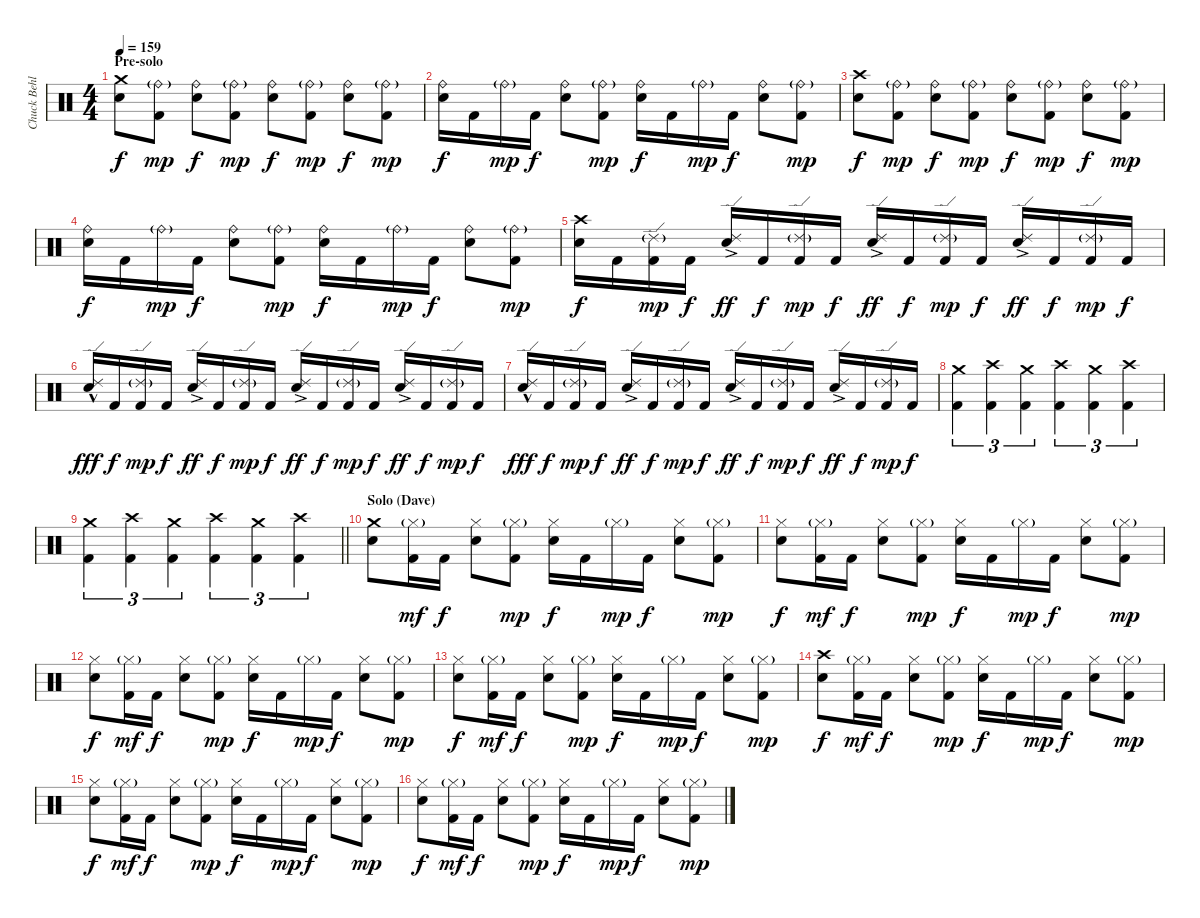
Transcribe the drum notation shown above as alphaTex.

\track ("Chuck Behler" "Chuck Behl") {instrument percussion}
\staff {score}
\articulation defaults
\ts (4 4)
\section ("" "Pre-solo")
\tempo 159
\clef neutral
\ks c
("Crash medium (hit)" "Snare (hit) 2").8{dy f} ("Ride (bell)"{g} "Kick (hit) 2").8{dy mp} ("Ride (bell)" "Snare (hit) 2").8{dy f} ("Ride (bell)"{g} "Kick (hit) 2").8{dy mp} ("Ride (bell)" "Snare (hit) 2").8{dy f} ("Ride (bell)"{g} "Kick (hit) 2").8{dy mp} ("Ride (bell)" "Snare (hit) 2").8{dy f} ("Ride (bell)"{g} "Kick (hit) 2").8{dy mp} |
("Ride (bell)" "Snare (hit) 2").16{dy f} "Kick (hit) 2".16 "Ride (bell)"{g}.16{dy mp} "Kick (hit) 2".16{dy f} ("Ride (bell)" "Snare (hit) 2").8 ("Ride (bell)"{g} "Kick (hit) 2").8{dy mp} ("Ride (bell)" "Snare (hit) 2").16{dy f} "Kick (hit) 2".16 "Ride (bell)"{g}.16{dy mp} "Kick (hit) 2".16{dy f} ("Ride (bell)" "Snare (hit) 2").8 ("Ride (bell)"{g} "Kick (hit) 2").8{dy mp} |
("Crash high (hit)" "Snare (hit) 2").8{dy f} ("Ride (bell)"{g} "Kick (hit) 2").8{dy mp} ("Ride (bell)" "Snare (hit) 2").8{dy f} ("Ride (bell)"{g} "Kick (hit) 2").8{dy mp} ("Ride (bell)" "Snare (hit) 2").8{dy f} ("Ride (bell)"{g} "Kick (hit) 2").8{dy mp} ("Ride (bell)" "Snare (hit) 2").8{dy f} ("Ride (bell)"{g} "Kick (hit) 2").8{dy mp} |
("Ride (bell)" "Snare (hit) 2").16{dy f} "Kick (hit) 2".16 "Ride (bell)"{g}.16{dy mp} "Kick (hit) 2".16{dy f} ("Ride (bell)" "Snare (hit) 2").8 ("Ride (bell)"{g} "Kick (hit) 2").8{dy mp} ("Ride (bell)" "Snare (hit) 2").16{dy f} "Kick (hit) 2".16 "Ride (bell)"{g}.16{dy mp} "Kick (hit) 2".16{dy f} ("Ride (bell)" "Snare (hit) 2").8 ("Ride (bell)"{g} "Kick (hit) 2").8{dy mp} |
("Crash high (hit)" "Snare (hit) 2").16{dy f} "Kick (hit) 2".16 ("Ride (edge) 2"{g} "Kick (hit) 2").16{dy mp} "Kick (hit) 2".16{dy f} ("Ride (edge) 2"{ac} "Snare (hit) 2").16{dy ff} "Kick (hit) 2".16{dy f} ("Ride (edge) 2"{g} "Kick (hit) 2").16{dy mp} "Kick (hit) 2".16{dy f} ("Ride (edge) 2"{ac} "Snare (hit) 2").16{dy ff} "Kick (hit) 2".16{dy f} ("Ride (edge) 2"{g} "Kick (hit) 2").16{dy mp} "Kick (hit) 2".16{dy f} ("Ride (edge) 2"{ac} "Snare (hit) 2").16{dy ff} "Kick (hit) 2".16{dy f} ("Ride (edge) 2"{g} "Kick (hit) 2").16{dy mp} "Kick (hit) 2".16{dy f} |
("Ride (edge) 2"{hac} "Snare (hit) 2").16{dy fff} "Kick (hit) 2".16{dy f} ("Ride (edge) 2"{g} "Kick (hit) 2").16{dy mp} "Kick (hit) 2".16{dy f} ("Ride (edge) 2"{ac} "Snare (hit) 2").16{dy ff} "Kick (hit) 2".16{dy f} ("Ride (edge) 2"{g} "Kick (hit) 2").16{dy mp} "Kick (hit) 2".16{dy f} ("Ride (edge) 2"{ac} "Snare (hit) 2").16{dy ff} "Kick (hit) 2".16{dy f} ("Ride (edge) 2"{g} "Kick (hit) 2").16{dy mp} "Kick (hit) 2".16{dy f} ("Ride (edge) 2"{ac} "Snare (hit) 2").16{dy ff} "Kick (hit) 2".16{dy f} ("Ride (edge) 2"{g} "Kick (hit) 2").16{dy mp} "Kick (hit) 2".16{dy f} |
("Ride (edge) 2"{hac} "Snare (hit) 2").16{dy fff} "Kick (hit) 2".16{dy f} ("Ride (edge) 2"{g} "Kick (hit) 2").16{dy mp} "Kick (hit) 2".16{dy f} ("Ride (edge) 2"{ac} "Snare (hit) 2").16{dy ff} "Kick (hit) 2".16{dy f} ("Ride (edge) 2"{g} "Kick (hit) 2").16{dy mp} "Kick (hit) 2".16{dy f} ("Ride (edge) 2"{ac} "Snare (hit) 2").16{dy ff} "Kick (hit) 2".16{dy f} ("Ride (edge) 2"{g} "Kick (hit) 2").16{dy mp} "Kick (hit) 2".16{dy f} ("Ride (edge) 2"{ac} "Snare (hit) 2").16{dy ff} "Kick (hit) 2".16{dy f} ("Ride (edge) 2"{g} "Kick (hit) 2").16{dy mp} "Kick (hit) 2".16{dy f} |
("Crash medium (hit)" "Kick (hit) 2").4{tu (3 2)} ("Crash high (hit)" "Kick (hit) 2").4{tu (3 2)} ("Crash medium (hit)" "Kick (hit) 2").4{tu (3 2)} ("Crash high (hit)" "Kick (hit) 2").4{tu (3 2)} ("Crash medium (hit)" "Kick (hit) 2").4{tu (3 2)} ("Crash high (hit)" "Kick (hit) 2").4{tu (3 2)} |
\barLineRight lightlight
("Crash medium (hit)" "Kick (hit) 2").4{tu (3 2)} ("Crash high (hit)" "Kick (hit) 2").4{tu (3 2)} ("Crash medium (hit)" "Kick (hit) 2").4{tu (3 2)} ("Crash high (hit)" "Kick (hit) 2").4{tu (3 2)} ("Crash medium (hit)" "Kick (hit) 2").4{tu (3 2)} ("Crash high (hit)" "Kick (hit) 2").4{tu (3 2)} |
\section ("" "Solo (Dave)")
("Crash medium (hit)" "Snare (hit) 2").8 ("Hi-Hat (closed)"{g} "Kick (hit) 2").16{dy mf} "Kick (hit) 2".16{dy f} ("Hi-Hat (closed)" "Snare (hit) 2").8 ("Hi-Hat (closed)"{g} "Kick (hit) 2").8{dy mp} ("Hi-Hat (closed)" "Snare (hit) 2").16{dy f} "Kick (hit) 2".16 "Hi-Hat (closed)"{g}.16{dy mp} "Kick (hit) 2".16{dy f} ("Hi-Hat (closed)" "Snare (hit) 2").8 ("Hi-Hat (closed)"{g} "Kick (hit) 2").8{dy mp} |
("Hi-Hat (closed)" "Snare (hit) 2").8{dy f} ("Hi-Hat (closed)"{g} "Kick (hit) 2").16{dy mf} "Kick (hit) 2".16{dy f} ("Hi-Hat (closed)" "Snare (hit) 2").8 ("Hi-Hat (closed)"{g} "Kick (hit) 2").8{dy mp} ("Hi-Hat (closed)" "Snare (hit) 2").16{dy f} "Kick (hit) 2".16 "Hi-Hat (closed)"{g}.16{dy mp} "Kick (hit) 2".16{dy f} ("Hi-Hat (closed)" "Snare (hit) 2").8 ("Hi-Hat (closed)"{g} "Kick (hit) 2").8{dy mp} |
("Hi-Hat (closed)" "Snare (hit) 2").8{dy f} ("Hi-Hat (closed)"{g} "Kick (hit) 2").16{dy mf} "Kick (hit) 2".16{dy f} ("Hi-Hat (closed)" "Snare (hit) 2").8 ("Hi-Hat (closed)"{g} "Kick (hit) 2").8{dy mp} ("Hi-Hat (closed)" "Snare (hit) 2").16{dy f} "Kick (hit) 2".16 "Hi-Hat (closed)"{g}.16{dy mp} "Kick (hit) 2".16{dy f} ("Hi-Hat (closed)" "Snare (hit) 2").8 ("Hi-Hat (closed)"{g} "Kick (hit) 2").8{dy mp} |
("Hi-Hat (closed)" "Snare (hit) 2").8{dy f} ("Hi-Hat (closed)"{g} "Kick (hit) 2").16{dy mf} "Kick (hit) 2".16{dy f} ("Hi-Hat (closed)" "Snare (hit) 2").8 ("Hi-Hat (closed)"{g} "Kick (hit) 2").8{dy mp} ("Hi-Hat (closed)" "Snare (hit) 2").16{dy f} "Kick (hit) 2".16 "Hi-Hat (closed)"{g}.16{dy mp} "Kick (hit) 2".16{dy f} ("Hi-Hat (closed)" "Snare (hit) 2").8 ("Hi-Hat (closed)"{g} "Kick (hit) 2").8{dy mp} |
("Crash high (hit)" "Snare (hit) 2").8{dy f} ("Hi-Hat (closed)"{g} "Kick (hit) 2").16{dy mf} "Kick (hit) 2".16{dy f} ("Hi-Hat (closed)" "Snare (hit) 2").8 ("Hi-Hat (closed)"{g} "Kick (hit) 2").8{dy mp} ("Hi-Hat (closed)" "Snare (hit) 2").16{dy f} "Kick (hit) 2".16 "Hi-Hat (closed)"{g}.16{dy mp} "Kick (hit) 2".16{dy f} ("Hi-Hat (closed)" "Snare (hit) 2").8 ("Hi-Hat (closed)"{g} "Kick (hit) 2").8{dy mp} |
("Hi-Hat (closed)" "Snare (hit) 2").8{dy f} ("Hi-Hat (closed)"{g} "Kick (hit) 2").16{dy mf} "Kick (hit) 2".16{dy f} ("Hi-Hat (closed)" "Snare (hit) 2").8 ("Hi-Hat (closed)"{g} "Kick (hit) 2").8{dy mp} ("Hi-Hat (closed)" "Snare (hit) 2").16{dy f} "Kick (hit) 2".16 "Hi-Hat (closed)"{g}.16{dy mp} "Kick (hit) 2".16{dy f} ("Hi-Hat (closed)" "Snare (hit) 2").8 ("Hi-Hat (closed)"{g} "Kick (hit) 2").8{dy mp} |
("Hi-Hat (closed)" "Snare (hit) 2").8{dy f} ("Hi-Hat (closed)"{g} "Kick (hit) 2").16{dy mf} "Kick (hit) 2".16{dy f} ("Hi-Hat (closed)" "Snare (hit) 2").8 ("Hi-Hat (closed)"{g} "Kick (hit) 2").8{dy mp} ("Hi-Hat (closed)" "Snare (hit) 2").16{dy f} "Kick (hit) 2".16 "Hi-Hat (closed)"{g}.16{dy mp} "Kick (hit) 2".16{dy f} ("Hi-Hat (closed)" "Snare (hit) 2").8 ("Hi-Hat (closed)"{g} "Kick (hit) 2").8{dy mp}
